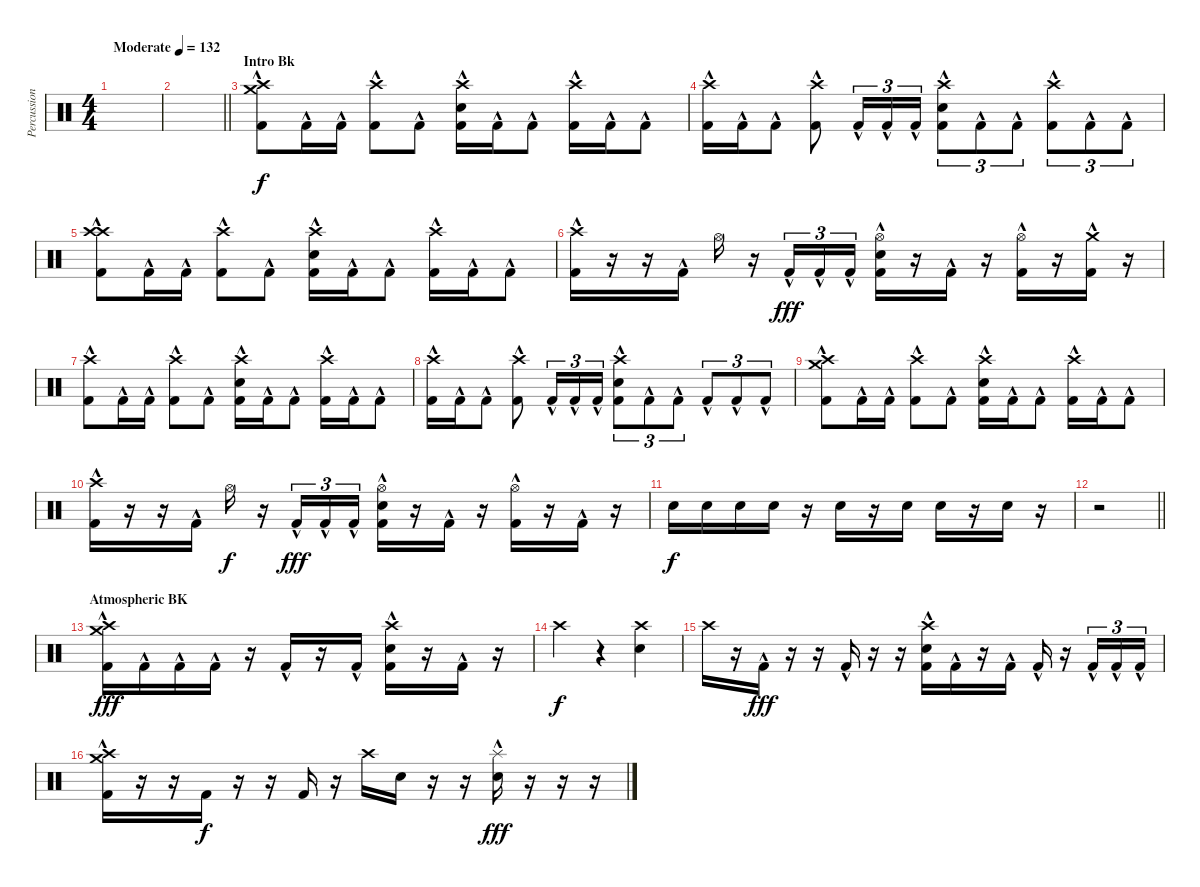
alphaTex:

\track ("Percussion" "Percussion") {instrument percussion}
\staff {score}
\articulation defaults
\ts (4 4)
\tempo (132 "Moderate")
\clef neutral
\ks aminor
|
\barLineRight lightlight
|
\section ("" "Intro Bk")
\ks c
("Crash medium (hit)" "Crash high (hit)" "Kick (hit) 2"{hac}).8 "Kick (hit) 2"{hac}.16 "Kick (hit) 2"{hac}.16 ("Crash high (hit)" "Kick (hit) 2"{hac}).8 "Kick (hit) 2"{hac}.8 ("Electric Snare (hit)" "Crash high (hit)" "Kick (hit) 2"{hac}).16 "Kick (hit) 2"{hac}.16 "Kick (hit) 2"{hac}.8 ("Crash high (hit)" "Kick (hit) 2"{hac}).16 "Kick (hit) 2"{hac}.16 "Kick (hit) 2"{hac}.8 |
("Crash high (hit)" "Kick (hit) 2"{hac}).16 "Kick (hit) 2"{hac}.16 "Kick (hit) 2"{hac}.8 ("Crash high (hit)" "Kick (hit) 2"{hac}).8 "Kick (hit) 2"{hac}.16{tu (3 2)} "Kick (hit) 2"{hac}.16{tu (3 2)} "Kick (hit) 2"{hac}.16{tu (3 2)} ("Electric Snare (hit)" "Crash high (hit)" "Kick (hit) 2"{hac}).8{tu (3 2)} "Kick (hit) 2"{hac}.8{tu (3 2)} "Kick (hit) 2"{hac}.8{tu (3 2)} ("Crash high (hit)" "Kick (hit) 2"{hac}).8{tu (3 2)} "Kick (hit) 2"{hac}.8{tu (3 2)} "Kick (hit) 2"{hac}.8{tu (3 2)} |
("Crash high (hit)" "Crash high (hit)" "Kick (hit) 2"{hac}).8 "Kick (hit) 2"{hac}.16 "Kick (hit) 2"{hac}.16 ("Crash high (hit)" "Kick (hit) 2"{hac}).8 "Kick (hit) 2"{hac}.8 ("Electric Snare (hit)" "Crash high (hit)" "Kick (hit) 2"{hac}).16 "Kick (hit) 2"{hac}.16 "Kick (hit) 2"{hac}.8 ("Crash high (hit)" "Kick (hit) 2"{hac}).16 "Kick (hit) 2"{hac}.16 "Kick (hit) 2"{hac}.8 |
("Crash high (hit)" "Kick (hit) 2"{hac}).16 r.16 r.16 "Kick (hit) 2"{hac}.16 "Hi-Hat (open)".16{dy f} r.16 "Kick (hit) 2"{hac}.16{tu (3 2) dy fff} "Kick (hit) 2"{hac}.16{tu (3 2)} "Kick (hit) 2"{hac}.16{tu (3 2)} ("Hi-Hat (open)" "Electric Snare (hit)" "Kick (hit) 2"{hac}).16 r.16 "Kick (hit) 2"{hac}.16 r.16 ("Hi-Hat (open)" "Kick (hit) 2"{hac}).16 r.16 ("Crash medium (hit)" "Kick (hit) 2"{hac}).16 r.16 |
("Crash high (hit)" "Kick (hit) 2"{hac}).8 "Kick (hit) 2"{hac}.16 "Kick (hit) 2"{hac}.16 ("Crash high (hit)" "Kick (hit) 2"{hac}).8 "Kick (hit) 2"{hac}.8 ("Electric Snare (hit)" "Crash high (hit)" "Kick (hit) 2"{hac}).16 "Kick (hit) 2"{hac}.16 "Kick (hit) 2"{hac}.8 ("Crash high (hit)" "Kick (hit) 2"{hac}).16 "Kick (hit) 2"{hac}.16 "Kick (hit) 2"{hac}.8 |
("Crash high (hit)" "Kick (hit) 2"{hac}).16 "Kick (hit) 2"{hac}.16 "Kick (hit) 2"{hac}.8 ("Crash high (hit)" "Kick (hit) 2"{hac}).8 "Kick (hit) 2"{hac}.16{tu (3 2)} "Kick (hit) 2"{hac}.16{tu (3 2)} "Kick (hit) 2"{hac}.16{tu (3 2)} ("Electric Snare (hit)" "Crash high (hit)" "Kick (hit) 2"{hac}).8{tu (3 2)} "Kick (hit) 2"{hac}.8{tu (3 2)} "Kick (hit) 2"{hac}.8{tu (3 2)} "Kick (hit) 2"{hac}.8{tu (3 2)} "Kick (hit) 2"{hac}.8{tu (3 2)} "Kick (hit) 2"{hac}.8{tu (3 2)} |
("Crash medium (hit)" "Crash high (hit)" "Kick (hit) 2"{hac}).8 "Kick (hit) 2"{hac}.16 "Kick (hit) 2"{hac}.16 ("Crash high (hit)" "Kick (hit) 2"{hac}).8 "Kick (hit) 2"{hac}.8 ("Electric Snare (hit)" "Crash high (hit)" "Kick (hit) 2"{hac}).16 "Kick (hit) 2"{hac}.16 "Kick (hit) 2"{hac}.8 ("Crash high (hit)" "Kick (hit) 2"{hac}).16 "Kick (hit) 2"{hac}.16 "Kick (hit) 2"{hac}.8 |
("Crash high (hit)" "Kick (hit) 2"{hac}).16 r.16 r.16 "Kick (hit) 2"{hac}.16 "Hi-Hat (open)".16{dy f} r.16 "Kick (hit) 2"{hac}.16{tu (3 2) dy fff} "Kick (hit) 2"{hac}.16{tu (3 2)} "Kick (hit) 2"{hac}.16{tu (3 2)} ("Hi-Hat (open)" "Electric Snare (hit)" "Kick (hit) 2"{hac}).16 r.16 "Kick (hit) 2"{hac}.16 r.16 ("Hi-Hat (open)" "Kick (hit) 2"{hac}).16 r.16 "Kick (hit) 2"{hac}.16 r.16 |
"Electric Snare (hit)".16{dy f} "Electric Snare (hit)".16 "Electric Snare (hit)".16 "Electric Snare (hit)".16 r.16 "Electric Snare (hit)".16 r.16 "Electric Snare (hit)".16 "Electric Snare (hit)".16 r.16 "Electric Snare (hit)".16 r.16 |
\barLineRight lightlight
r.2 |
\section ("" "Atmospheric BK")
("Crash high (hit)" "Crash medium (hit)" "Kick (hit) 2"{hac}).16{dy fff} "Kick (hit) 2"{hac}.16 "Kick (hit) 2"{hac}.16 "Kick (hit) 2"{hac}.16 r.16 "Kick (hit) 2"{hac}.16 r.16 "Kick (hit) 2"{hac}.16 ("Electric Snare (hit)" "Crash high (hit)" "Kick (hit) 2"{hac}).16 r.16 "Kick (hit) 2"{hac}.16 r.16 |
"Crash high (hit)".4{dy f} r.4 ("Electric Snare (hit)" "Crash high (hit)").4 |
"Crash high (hit)".16 r.16 "Kick (hit) 2"{hac}.16{dy fff} r.16 r.16 "Kick (hit) 2"{hac}.16 r.16 r.16 ("Electric Snare (hit)" "Crash high (hit)" "Kick (hit) 2"{hac}).16 "Kick (hit) 2"{hac}.16 r.16 "Kick (hit) 2"{hac}.16 "Kick (hit) 2"{hac}.16 r.16 "Kick (hit) 2"{hac}.16{tu (3 2)} "Kick (hit) 2"{hac}.16{tu (3 2)} "Kick (hit) 2"{hac}.16{tu (3 2)} |
("Crash medium (hit)" "Crash high (hit)" "Kick (hit) 2"{hac}).16 r.16 r.16 "Kick (hit) 2".16{dy f} r.16 r.16 "Kick (hit) 2".16 r.16 "Crash high (hit)".16 "Electric Snare (hit)".16 r.16 r.16 ("Splash (hit)"{hac} "Electric Snare (hit)").16{dy fff} r.16 r.16 r.16
